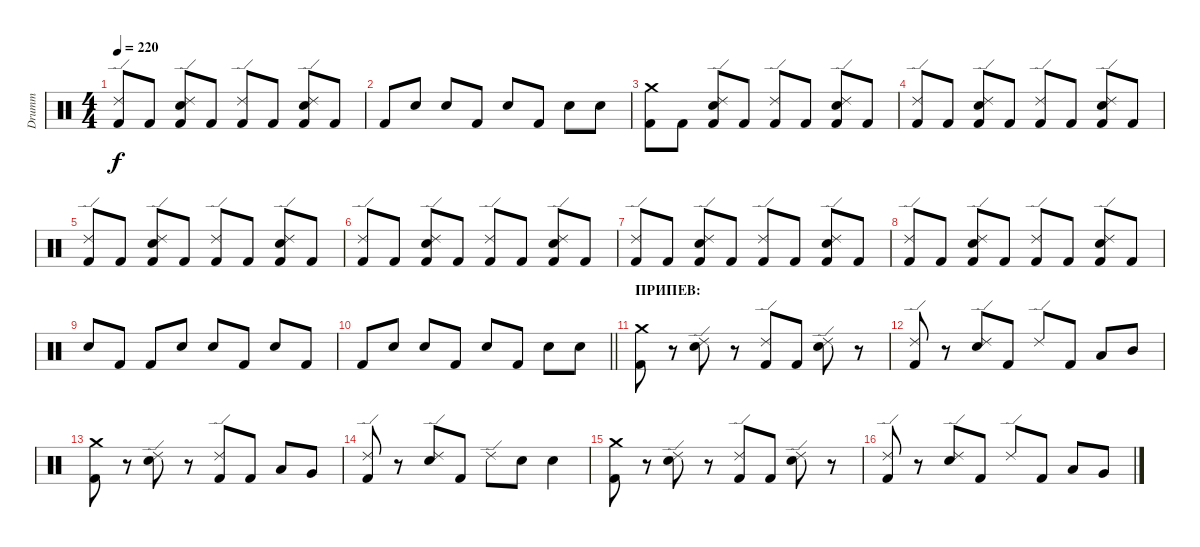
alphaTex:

\track ("Drumm" "Drumm") {instrument percussion}
\staff {score}
\articulation defaults
\ts (4 4)
\tempo 220
\clef neutral
\ks c
("Ride (edge) 2" "Kick (hit) 2").8{dy f} "Kick (hit) 2".8 ("Ride (edge) 2" "Snare (hit) 2" "Kick (hit) 2").8 "Kick (hit) 2".8 ("Ride (edge) 2" "Kick (hit) 2").8 "Kick (hit) 2".8 ("Ride (edge) 2" "Snare (hit) 2" "Kick (hit) 2").8 "Kick (hit) 2".8 |
"Kick (hit) 2".8 "Snare (hit) 2".8 "Snare (hit) 2".8 "Kick (hit) 2".8 "Snare (hit) 2".8 "Kick (hit) 2".8 "Snare (hit) 2".8 "Snare (hit) 2".8 |
("Crash medium (hit)" "Kick (hit) 2").8 "Kick (hit) 2".8 ("Ride (edge) 2" "Snare (hit) 2" "Kick (hit) 2").8 "Kick (hit) 2".8 ("Ride (edge) 2" "Kick (hit) 2").8 "Kick (hit) 2".8 ("Ride (edge) 2" "Snare (hit) 2" "Kick (hit) 2").8 "Kick (hit) 2".8 |
("Ride (edge) 2" "Kick (hit) 2").8 "Kick (hit) 2".8 ("Ride (edge) 2" "Snare (hit) 2" "Kick (hit) 2").8 "Kick (hit) 2".8 ("Ride (edge) 2" "Kick (hit) 2").8 "Kick (hit) 2".8 ("Ride (edge) 2" "Snare (hit) 2" "Kick (hit) 2").8 "Kick (hit) 2".8 |
("Ride (edge) 2" "Kick (hit) 2").8 "Kick (hit) 2".8 ("Ride (edge) 2" "Snare (hit) 2" "Kick (hit) 2").8 "Kick (hit) 2".8 ("Ride (edge) 2" "Kick (hit) 2").8 "Kick (hit) 2".8 ("Ride (edge) 2" "Snare (hit) 2" "Kick (hit) 2").8 "Kick (hit) 2".8 |
("Ride (edge) 2" "Kick (hit) 2").8 "Kick (hit) 2".8 ("Ride (edge) 2" "Snare (hit) 2" "Kick (hit) 2").8 "Kick (hit) 2".8 ("Ride (edge) 2" "Kick (hit) 2").8 "Kick (hit) 2".8 ("Ride (edge) 2" "Snare (hit) 2" "Kick (hit) 2").8 "Kick (hit) 2".8 |
("Ride (edge) 2" "Kick (hit) 2").8 "Kick (hit) 2".8 ("Ride (edge) 2" "Snare (hit) 2" "Kick (hit) 2").8 "Kick (hit) 2".8 ("Ride (edge) 2" "Kick (hit) 2").8 "Kick (hit) 2".8 ("Ride (edge) 2" "Snare (hit) 2" "Kick (hit) 2").8 "Kick (hit) 2".8 |
("Ride (edge) 2" "Kick (hit) 2").8 "Kick (hit) 2".8 ("Ride (edge) 2" "Snare (hit) 2" "Kick (hit) 2").8 "Kick (hit) 2".8 ("Ride (edge) 2" "Kick (hit) 2").8 "Kick (hit) 2".8 ("Ride (edge) 2" "Snare (hit) 2" "Kick (hit) 2").8 "Kick (hit) 2".8 |
"Snare (hit) 2".8 "Kick (hit) 2".8 "Kick (hit) 2".8 "Snare (hit) 2".8 "Snare (hit) 2".8 "Kick (hit) 2".8 "Snare (hit) 2".8 "Kick (hit) 2".8 |
\barLineRight lightlight "Kick (hit) 2".8 "Snare (hit) 2".8 "Snare (hit) 2".8 "Kick (hit) 2".8 "Snare (hit) 2".8 "Kick (hit) 2".8 "Snare (hit) 2".8 "Snare (hit) 2".8
|
\section ("" "ПРИПЕВ:")
("Crash medium (hit)" "Kick (hit) 2").8 r.8 ("Ride (edge) 2" "Snare (hit) 2").8 r.8 ("Ride (edge) 2" "Kick (hit) 2").8 "Kick (hit) 2".8 ("Ride (edge) 2" "Snare (hit) 2").8 r.8 |
("Ride (edge) 2" "Kick (hit) 2").8 r.8 ("Ride (edge) 2" "Snare (hit) 2").8 "Kick (hit) 2".8 "Ride (edge) 2".8 "Kick (hit) 2".8 "Low Tom (hit)".8 "Mid Tom (hit)".8 |
("Crash medium (hit)" "Kick (hit) 2").8 r.8 ("Ride (edge) 2" "Snare (hit) 2").8 r.8 ("Ride (edge) 2" "Kick (hit) 2").8 "Kick (hit) 2".8 "Low Tom (hit)".8 "Very Low Tom (hit)".8 |
("Ride (edge) 2" "Kick (hit) 2").8 r.8 ("Ride (edge) 2" "Snare (hit) 2").8 "Kick (hit) 2".8 "Ride (edge) 2".8 "Snare (hit) 2".8 "Snare (hit) 2".4 |
("Crash medium (hit)" "Kick (hit) 2").8 r.8 ("Ride (edge) 2" "Snare (hit) 2").8 r.8 ("Ride (edge) 2" "Kick (hit) 2").8 "Kick (hit) 2".8 ("Ride (edge) 2" "Snare (hit) 2").8 r.8 |
("Ride (edge) 2" "Kick (hit) 2").8 r.8 ("Ride (edge) 2" "Snare (hit) 2").8 "Kick (hit) 2".8 "Ride (edge) 2".8 "Kick (hit) 2".8 "Low Tom (hit)".8 "Very Low Tom (hit)".8
